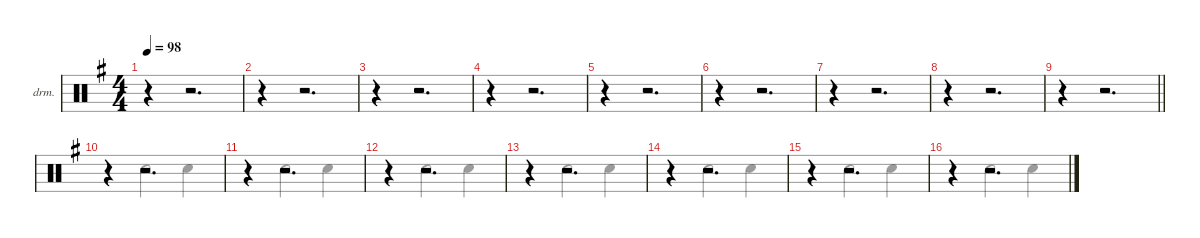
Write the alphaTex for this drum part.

\defaultSystemsLayout 4
\hideDynamics
\bracketExtendMode nobrackets
\firstSystemTrackNameOrientation horizontal
\otherSystemsTrackNameOrientation horizontal
\track ("Percussion" "drm.") {instrument percussion}
\staff {score}
\articulation defaults
\voice
\ts (4 4)
\beaming (8 2 2 2 2)
\tempo 98
\clef neutral
\ks eminor
r.4{dy mf} r.2{d} |
r.4 r.2{d} |
r.4 r.2{d} |
r.4 r.2{d} |
r.4 r.2{d} |
r.4 r.2{d} |
r.4 r.2{d} |
r.4 r.2{d} |
\barLineRight lightlight
r.4 r.2{d} |
r.4 r.2{d} |
r.4 r.2{d} |
r.4 r.2{d} |
r.4 r.2{d} |
r.4 r.2{d} |
r.4 r.2{d} |
r.4 r.2{d}
\voice
\clef neutral
\ottava regular
\simile none
\ks eminor
|
|
|
|
|
|
|
|
\barLineRight lightlight
|
r.4 "Snare (hit) 2"{acc forcenatural}.2 "Snare (hit) 2"{acc forcenatural}.4 |
r.4 "Snare (hit) 2"{acc forcenatural}.2 "Snare (hit) 2"{acc forcenatural}.4 |
r.4 "Snare (hit) 2"{acc forcenatural}.2 "Snare (hit) 2"{acc forcenatural}.4 |
r.4 "Snare (hit) 2"{acc forcenatural}.2 "Snare (hit) 2"{acc forcenatural}.4 |
r.4 "Snare (hit) 2"{acc forcenatural}.2 "Snare (hit) 2"{acc forcenatural}.4 |
r.4 "Snare (hit) 2"{acc forcenatural}.2 "Snare (hit) 2"{acc forcenatural}.4 |
r.4 "Snare (hit) 2"{acc forcenatural}.2 "Snare (hit) 2"{acc forcenatural}.4
